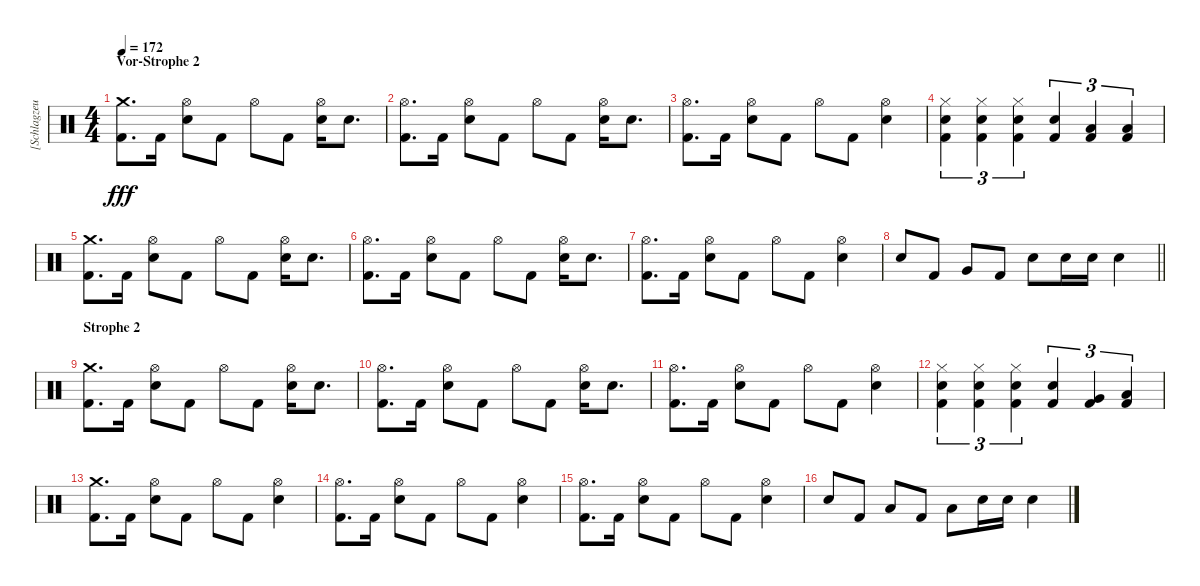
\track ("[Schlagzeug]" "[Schlagzeu") {instrument percussion}
\staff {score}
\articulation defaults
\ts (4 4)
\section ("" "Vor-Strophe 2")
\tempo 172
\clef neutral
\ks c
("Crash medium (hit)" "Kick (hit) 2").8{d dy fff} "Kick (hit) 2".16 ("Hi-Hat (open)" "Electric Snare (hit)").8 "Kick (hit) 2".8 "Hi-Hat (open)".8 "Kick (hit) 2".8 ("Hi-Hat (open)" "Electric Snare (hit)").16 "Electric Snare (hit)".8{d} |
("Hi-Hat (open)" "Kick (hit) 2").8{d} "Kick (hit) 2".16 ("Hi-Hat (open)" "Electric Snare (hit)").8 "Kick (hit) 2".8 "Hi-Hat (open)".8 "Kick (hit) 2".8 ("Hi-Hat (open)" "Electric Snare (hit)").16 "Electric Snare (hit)".8{d} |
("Hi-Hat (open)" "Kick (hit) 2").8{d} "Kick (hit) 2".16 ("Hi-Hat (open)" "Electric Snare (hit)").8 "Kick (hit) 2".8 "Hi-Hat (open)".8 "Kick (hit) 2".8 ("Hi-Hat (open)" "Electric Snare (hit)").4 |
("Hi-Hat (closed)" "Electric Snare (hit)" "Kick (hit) 2").4{tu (3 2)} ("Hi-Hat (closed)" "Electric Snare (hit)" "Kick (hit) 2").4{tu (3 2)} ("Hi-Hat (closed)" "Electric Snare (hit)" "Kick (hit) 2").4{tu (3 2)} ("Electric Snare (hit)" "Kick (hit) 2").4{tu (3 2)} ("Low Tom (hit)" "Kick (hit) 2").4{tu (3 2)} ("Low Tom (hit)" "Kick (hit) 2").4{tu (3 2)} |
("Crash medium (hit)" "Kick (hit) 2").8{d} "Kick (hit) 2".16 ("Hi-Hat (open)" "Electric Snare (hit)").8 "Kick (hit) 2".8 "Hi-Hat (open)".8 "Kick (hit) 2".8 ("Hi-Hat (open)" "Electric Snare (hit)").16 "Electric Snare (hit)".8{d} |
("Hi-Hat (open)" "Kick (hit) 2").8{d} "Kick (hit) 2".16 ("Hi-Hat (open)" "Electric Snare (hit)").8 "Kick (hit) 2".8 "Hi-Hat (open)".8 "Kick (hit) 2".8 ("Hi-Hat (open)" "Electric Snare (hit)").16 "Electric Snare (hit)".8{d} |
("Hi-Hat (open)" "Kick (hit) 2").8{d} "Kick (hit) 2".16 ("Hi-Hat (open)" "Electric Snare (hit)").8 "Kick (hit) 2".8 "Hi-Hat (open)".8 "Kick (hit) 2".8 ("Hi-Hat (open)" "Electric Snare (hit)").4 |
\barLineRight lightlight "Electric Snare (hit)".8 "Kick (hit) 2".8 "Very Low Tom (hit)".8 "Kick (hit) 2".8 "Electric Snare (hit)".8 "Electric Snare (hit)".16 "Electric Snare (hit)".16 "Electric Snare (hit)".4
|
\section ("" "Strophe 2")
("Crash medium (hit)" "Kick (hit) 2").8{d} "Kick (hit) 2".16 ("Hi-Hat (open)" "Electric Snare (hit)").8 "Kick (hit) 2".8 "Hi-Hat (open)".8 "Kick (hit) 2".8 ("Hi-Hat (open)" "Electric Snare (hit)").16 "Electric Snare (hit)".8{d} |
("Hi-Hat (open)" "Kick (hit) 2").8{d} "Kick (hit) 2".16 ("Hi-Hat (open)" "Electric Snare (hit)").8 "Kick (hit) 2".8 "Hi-Hat (open)".8 "Kick (hit) 2".8 ("Hi-Hat (open)" "Electric Snare (hit)").16 "Electric Snare (hit)".8{d} |
("Hi-Hat (open)" "Kick (hit) 2").8{d} "Kick (hit) 2".16 ("Hi-Hat (open)" "Electric Snare (hit)").8 "Kick (hit) 2".8 "Hi-Hat (open)".8 "Kick (hit) 2".8 ("Hi-Hat (open)" "Electric Snare (hit)").4 |
("Hi-Hat (closed)" "Electric Snare (hit)" "Kick (hit) 2").4{tu (3 2)} ("Hi-Hat (closed)" "Electric Snare (hit)" "Kick (hit) 2").4{tu (3 2)} ("Hi-Hat (closed)" "Electric Snare (hit)" "Kick (hit) 2").4{tu (3 2)} ("Electric Snare (hit)" "Kick (hit) 2").4{tu (3 2)} ("Very Low Tom (hit)" "Kick (hit) 2").4{tu (3 2)} ("Low Tom (hit)" "Kick (hit) 2").4{tu (3 2)} |
("Crash medium (hit)" "Kick (hit) 2").8{d} "Kick (hit) 2".16 ("Hi-Hat (open)" "Electric Snare (hit)").8 "Kick (hit) 2".8 "Hi-Hat (open)".8 "Kick (hit) 2".8 ("Hi-Hat (open)" "Electric Snare (hit)").4 |
("Hi-Hat (open)" "Kick (hit) 2").8{d} "Kick (hit) 2".16 ("Hi-Hat (open)" "Electric Snare (hit)").8 "Kick (hit) 2".8 "Hi-Hat (open)".8 "Kick (hit) 2".8 ("Hi-Hat (open)" "Electric Snare (hit)").4 |
("Hi-Hat (open)" "Kick (hit) 2").8{d} "Kick (hit) 2".16 ("Hi-Hat (open)" "Electric Snare (hit)").8 "Kick (hit) 2".8 "Hi-Hat (open)".8 "Kick (hit) 2".8 ("Hi-Hat (open)" "Electric Snare (hit)").4 |
"Electric Snare (hit)".8 "Kick (hit) 2".8 "Low Tom (hit)".8 "Kick (hit) 2".8 "Low Tom (hit)".8 "Electric Snare (hit)".16 "Electric Snare (hit)".16 "Electric Snare (hit)".4
